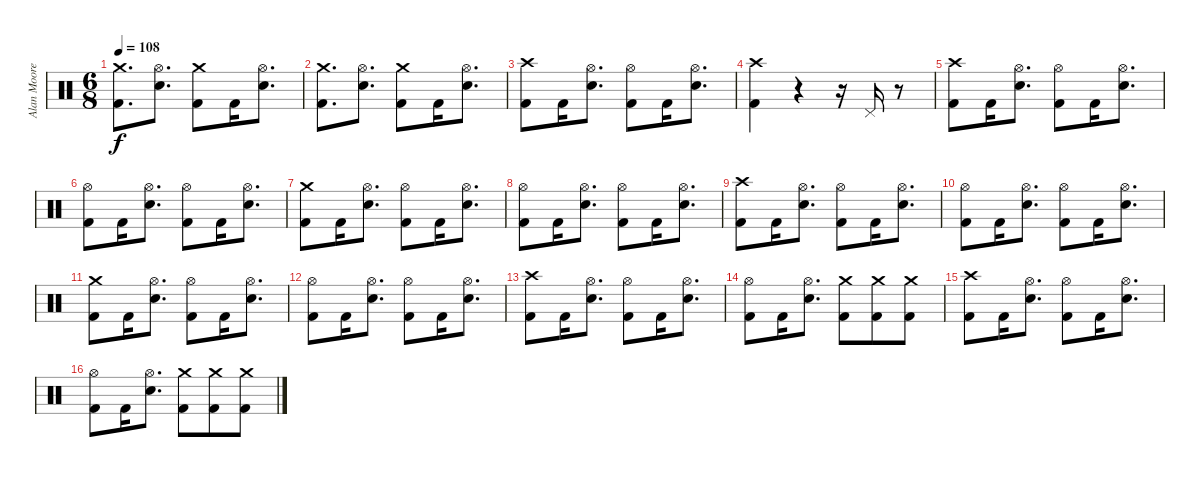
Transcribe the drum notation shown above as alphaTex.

\track ("Alan Moore" "Alan Moore") {instrument percussion}
\staff {score}
\articulation defaults
\ts (6 8)
\tempo 108
\clef neutral
\ks c
("Crash medium (hit)" "Kick (hit) 2").8{d dy f} ("Hi-Hat (open)" "Snare (hit) 2").8{d} ("Crash medium (hit)" "Kick (hit) 2").8 "Kick (hit) 2".16 ("Hi-Hat (open)" "Snare (hit) 2").8{d} |
("Crash medium (hit)" "Kick (hit) 2").8{d} ("Hi-Hat (open)" "Snare (hit) 2").8{d} ("Crash medium (hit)" "Kick (hit) 2").8 "Kick (hit) 2".16 ("Hi-Hat (open)" "Snare (hit) 2").8{d} |
("Crash high (hit)" "Kick (hit) 2").8 "Kick (hit) 2".16 ("Hi-Hat (open)" "Snare (hit) 2").8{d} ("Hi-Hat (open)" "Kick (hit) 2").8 "Kick (hit) 2".16 ("Hi-Hat (open)" "Snare (hit) 2").8{d} |
("Crash high (hit)" "Kick (hit) 2").4 r.4 r.16 "Pedal Hi-Hat (hit)".16 r.8 |
("Crash high (hit)" "Kick (hit) 2").8 "Kick (hit) 2".16 ("Hi-Hat (open)" "Snare (hit) 2").8{d} ("Hi-Hat (open)" "Kick (hit) 2").8 "Kick (hit) 2".16 ("Hi-Hat (open)" "Snare (hit) 2").8{d} |
("Hi-Hat (open)" "Kick (hit) 2").8 "Kick (hit) 2".16 ("Hi-Hat (open)" "Snare (hit) 2").8{d} ("Hi-Hat (open)" "Kick (hit) 2").8 "Kick (hit) 2".16 ("Hi-Hat (open)" "Snare (hit) 2").8{d} |
("Crash medium (hit)" "Kick (hit) 2").8 "Kick (hit) 2".16 ("Hi-Hat (open)" "Snare (hit) 2").8{d} ("Hi-Hat (open)" "Kick (hit) 2").8 "Kick (hit) 2".16 ("Hi-Hat (open)" "Snare (hit) 2").8{d} |
("Hi-Hat (open)" "Kick (hit) 2").8 "Kick (hit) 2".16 ("Hi-Hat (open)" "Snare (hit) 2").8{d} ("Hi-Hat (open)" "Kick (hit) 2").8 "Kick (hit) 2".16 ("Hi-Hat (open)" "Snare (hit) 2").8{d} |
("Crash high (hit)" "Kick (hit) 2").8 "Kick (hit) 2".16 ("Hi-Hat (open)" "Snare (hit) 2").8{d} ("Hi-Hat (open)" "Kick (hit) 2").8 "Kick (hit) 2".16 ("Hi-Hat (open)" "Snare (hit) 2").8{d} |
("Hi-Hat (open)" "Kick (hit) 2").8 "Kick (hit) 2".16 ("Hi-Hat (open)" "Snare (hit) 2").8{d} ("Hi-Hat (open)" "Kick (hit) 2").8 "Kick (hit) 2".16 ("Hi-Hat (open)" "Snare (hit) 2").8{d} |
("Crash medium (hit)" "Kick (hit) 2").8 "Kick (hit) 2".16 ("Hi-Hat (open)" "Snare (hit) 2").8{d} ("Hi-Hat (open)" "Kick (hit) 2").8 "Kick (hit) 2".16 ("Hi-Hat (open)" "Snare (hit) 2").8{d} |
("Hi-Hat (open)" "Kick (hit) 2").8 "Kick (hit) 2".16 ("Hi-Hat (open)" "Snare (hit) 2").8{d} ("Hi-Hat (open)" "Kick (hit) 2").8 "Kick (hit) 2".16 ("Hi-Hat (open)" "Snare (hit) 2").8{d} |
("Crash high (hit)" "Kick (hit) 2").8 "Kick (hit) 2".16 ("Hi-Hat (open)" "Snare (hit) 2").8{d} ("Hi-Hat (open)" "Kick (hit) 2").8 "Kick (hit) 2".16 ("Hi-Hat (open)" "Snare (hit) 2").8{d} |
("Hi-Hat (open)" "Kick (hit) 2").8 "Kick (hit) 2".16 ("Hi-Hat (open)" "Snare (hit) 2").8{d} ("Crash medium (hit)" "Kick (hit) 2").8 ("Crash medium (hit)" "Kick (hit) 2").8 ("Crash medium (hit)" "Kick (hit) 2").8 |
("Crash high (hit)" "Kick (hit) 2").8 "Kick (hit) 2".16 ("Hi-Hat (open)" "Snare (hit) 2").8{d} ("Hi-Hat (open)" "Kick (hit) 2").8 "Kick (hit) 2".16 ("Hi-Hat (open)" "Snare (hit) 2").8{d} |
("Hi-Hat (open)" "Kick (hit) 2").8 "Kick (hit) 2".16 ("Hi-Hat (open)" "Snare (hit) 2").8{d} ("Crash medium (hit)" "Kick (hit) 2").8 ("Crash medium (hit)" "Kick (hit) 2").8 ("Crash medium (hit)" "Kick (hit) 2").8
